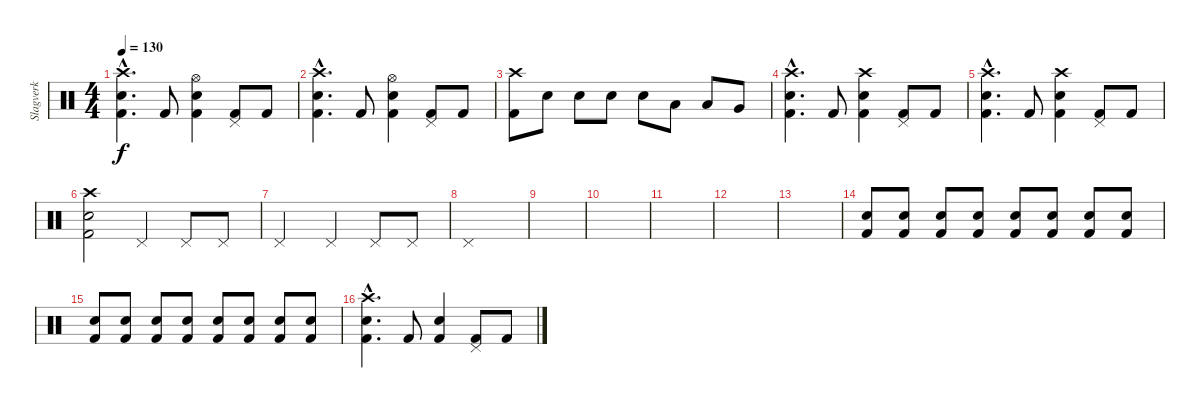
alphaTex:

\track ("Slagverk" "Slagverk") {instrument percussion}
\staff {score}
\articulation defaults
\ts (4 4)
\tempo 130
\clef neutral
\ks c
("Crash high (hit)"{hac} "Electric Snare (hit)"{hac} "Kick (hit) 2"{hac}).4{d dy f} "Kick (hit) 2".8 ("Hi-Hat (open)" "Electric Snare (hit)" "Kick (hit) 2").4 ("Pedal Hi-Hat (hit)" "Kick (hit) 2").8 "Kick (hit) 2".8 |
("Crash high (hit)"{hac} "Electric Snare (hit)"{hac} "Kick (hit) 2"{hac}).4{d} "Kick (hit) 2".8 ("Hi-Hat (open)" "Electric Snare (hit)" "Kick (hit) 2").4 ("Pedal Hi-Hat (hit)" "Kick (hit) 2").8 "Kick (hit) 2".8 |
("Crash high (hit)" "Kick (hit) 2").8 "Electric Snare (hit)".8 "Electric Snare (hit)".8 "Snare (hit) 2".8 "Snare (hit) 2".8 "Low Tom (hit)".8 "Low Tom (hit)".8 "Very Low Tom (hit)".8 |
("Crash high (hit)"{hac} "Electric Snare (hit)"{hac} "Kick (hit) 2"{hac}).4{d} "Kick (hit) 2".8 ("Crash high (hit)" "Electric Snare (hit)" "Kick (hit) 2").4 ("Pedal Hi-Hat (hit)" "Kick (hit) 2").8 "Kick (hit) 2".8 |
("Crash high (hit)"{hac} "Electric Snare (hit)"{hac} "Kick (hit) 2"{hac}).4{d} "Kick (hit) 2".8 ("Crash high (hit)" "Electric Snare (hit)" "Kick (hit) 2").4 ("Pedal Hi-Hat (hit)" "Kick (hit) 2").8 "Kick (hit) 2".8 |
("Crash high (hit)" "Electric Snare (hit)" "Kick (hit) 2").2 "Pedal Hi-Hat (hit)".4 "Pedal Hi-Hat (hit)".8 "Pedal Hi-Hat (hit)".8 |
"Pedal Hi-Hat (hit)".2 "Pedal Hi-Hat (hit)".4 "Pedal Hi-Hat (hit)".8 "Pedal Hi-Hat (hit)".8 |
"Pedal Hi-Hat (hit)".1 |
|
|
|
|
|
("Snare (hit) 2" "Kick (hit) 2").8{volume 8} ("Snare (hit) 2" "Kick (hit) 2").8{volume 15} ("Snare (hit) 2" "Kick (hit) 2").8 ("Snare (hit) 2" "Kick (hit) 2").8 ("Snare (hit) 2" "Kick (hit) 2").8 ("Snare (hit) 2" "Kick (hit) 2").8 ("Snare (hit) 2" "Kick (hit) 2").8 ("Snare (hit) 2" "Kick (hit) 2").8 |
("Electric Snare (hit)" "Kick (hit) 2").8 ("Electric Snare (hit)" "Kick (hit) 2").8 ("Electric Snare (hit)" "Kick (hit) 2").8 ("Electric Snare (hit)" "Kick (hit) 2").8 ("Electric Snare (hit)" "Kick (hit) 2").8 ("Electric Snare (hit)" "Kick (hit) 2").8 ("Electric Snare (hit)" "Kick (hit) 2").8 ("Electric Snare (hit)" "Kick (hit) 2").8 |
("Crash high (hit)"{hac} "Electric Snare (hit)"{hac} "Kick (hit) 2"{hac}).4{d} "Kick (hit) 2".8 ("Electric Snare (hit)" "Kick (hit) 2").4 ("Pedal Hi-Hat (hit)" "Kick (hit) 2").8 "Kick (hit) 2".8
